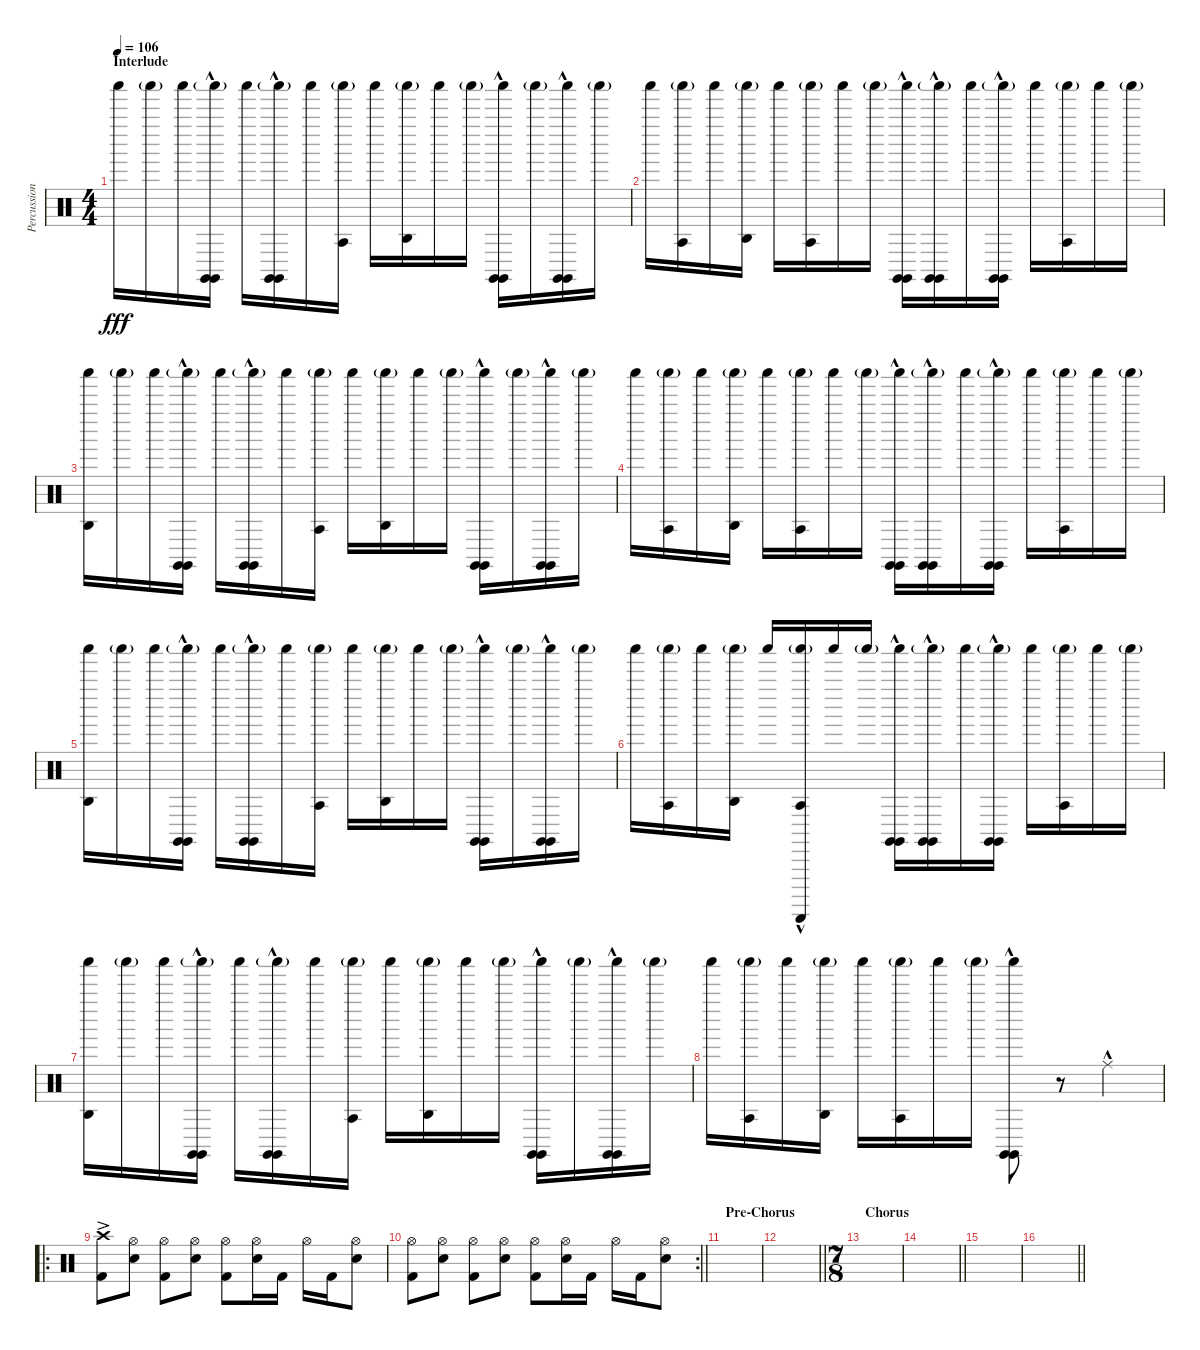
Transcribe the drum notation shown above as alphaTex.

\track ("Percussion 1" "Percussion") {instrument percussion}
\staff {score}
\articulation defaults
\ts (4 4)
\section ("" "Interlude")
\tempo 106
\clef neutral
\ks c "Shaker (hit)".16{dy fff} "Shaker (hit)"{g}.16 "Shaker (hit)".16
("Shaker (hit)"{g} "Claves (hit)"{hac} "Claves (hit)"{hac}).16 "Shaker (hit)".16 ("Shaker (hit)"{g} "Claves (hit)"{hac} "Claves (hit)"{hac}).16 "Shaker (hit)".16 ("Shaker (hit)"{g} "Agogo tow (hit)").16 "Shaker (hit)".16 ("Shaker (hit)"{g} "Agogo high (hit)").16 "Shaker (hit)".16 "Shaker (hit)"{g}.16 ("Shaker (hit)" "Claves (hit)"{hac} "Claves (hit)"{hac}).16 "Shaker (hit)"{g}.16 ("Shaker (hit)" "Claves (hit)"{hac} "Claves (hit)"{hac}).16 "Shaker (hit)"{g}.16 |
"Shaker (hit)".16 ("Shaker (hit)"{g} "Agogo tow (hit)").16 "Shaker (hit)".16 ("Shaker (hit)"{g} "Agogo high (hit)").16 "Shaker (hit)".16 ("Shaker (hit)"{g} "Agogo tow (hit)").16 "Shaker (hit)".16 "Shaker (hit)"{g}.16 ("Shaker (hit)" "Claves (hit)"{hac} "Claves (hit)"{hac}).16 ("Shaker (hit)"{g} "Claves (hit)"{hac} "Claves (hit)"{hac}).16 "Shaker (hit)".16 ("Shaker (hit)"{g} "Claves (hit)"{hac} "Claves (hit)"{hac}).16 "Shaker (hit)".16 ("Shaker (hit)"{g} "Agogo tow (hit)").16 "Shaker (hit)".16 "Shaker (hit)"{g}.16 |
("Shaker (hit)" "Agogo high (hit)").16 "Shaker (hit)"{g}.16 "Shaker (hit)".16 ("Shaker (hit)"{g} "Claves (hit)"{hac} "Claves (hit)"{hac}).16 "Shaker (hit)".16 ("Shaker (hit)"{g} "Claves (hit)"{hac} "Claves (hit)"{hac}).16 "Shaker (hit)".16 ("Shaker (hit)"{g} "Agogo tow (hit)").16 "Shaker (hit)".16 ("Shaker (hit)"{g} "Agogo high (hit)").16 "Shaker (hit)".16 "Shaker (hit)"{g}.16 ("Shaker (hit)" "Claves (hit)"{hac} "Claves (hit)"{hac}).16 "Shaker (hit)"{g}.16 ("Shaker (hit)" "Claves (hit)"{hac} "Claves (hit)"{hac}).16 "Shaker (hit)"{g}.16 |
"Shaker (hit)".16 ("Shaker (hit)"{g} "Agogo tow (hit)").16 "Shaker (hit)".16 ("Shaker (hit)"{g} "Agogo high (hit)").16 "Shaker (hit)".16 ("Shaker (hit)"{g} "Agogo tow (hit)").16 "Shaker (hit)".16 "Shaker (hit)"{g}.16 ("Shaker (hit)" "Claves (hit)"{hac} "Claves (hit)"{hac}).16 ("Shaker (hit)"{g} "Claves (hit)"{hac} "Claves (hit)"{hac}).16 "Shaker (hit)".16 ("Shaker (hit)"{g} "Claves (hit)"{hac} "Claves (hit)"{hac}).16 "Shaker (hit)".16 ("Shaker (hit)"{g} "Agogo tow (hit)").16 "Shaker (hit)".16 "Shaker (hit)"{g}.16 |
("Shaker (hit)" "Agogo high (hit)").16 "Shaker (hit)"{g}.16 "Shaker (hit)".16 ("Shaker (hit)"{g} "Claves (hit)"{hac} "Claves (hit)"{hac}).16 "Shaker (hit)".16 ("Shaker (hit)"{g} "Claves (hit)"{hac} "Claves (hit)"{hac}).16 "Shaker (hit)".16 ("Shaker (hit)"{g} "Agogo tow (hit)").16 "Shaker (hit)".16 ("Shaker (hit)"{g} "Agogo high (hit)").16 "Shaker (hit)".16 "Shaker (hit)"{g}.16 ("Shaker (hit)" "Claves (hit)"{hac} "Claves (hit)"{hac}).16 "Shaker (hit)"{g}.16 ("Shaker (hit)" "Claves (hit)"{hac} "Claves (hit)"{hac}).16 "Shaker (hit)"{g}.16 |
"Shaker (hit)".16 ("Shaker (hit)"{g} "Agogo tow (hit)").16 "Shaker (hit)".16 ("Shaker (hit)"{g} "Agogo high (hit)").16 "Shaker (hit)".16 ("Shaker (hit)"{g} "Guiro (scrap-return)"{hac} "Agogo tow (hit)").16 "Shaker (hit)".16 "Shaker (hit)"{g}.16 ("Shaker (hit)" "Claves (hit)"{hac} "Claves (hit)"{hac}).16 ("Shaker (hit)"{g} "Claves (hit)"{hac} "Claves (hit)"{hac}).16 "Shaker (hit)".16 ("Shaker (hit)"{g} "Claves (hit)"{hac} "Claves (hit)"{hac}).16 "Shaker (hit)".16 ("Shaker (hit)"{g} "Agogo tow (hit)").16 "Shaker (hit)".16 "Shaker (hit)"{g}.16 |
("Shaker (hit)" "Agogo high (hit)").16 "Shaker (hit)"{g}.16 "Shaker (hit)".16 ("Shaker (hit)"{g} "Claves (hit)"{hac} "Claves (hit)"{hac}).16 "Shaker (hit)".16 ("Shaker (hit)"{g} "Claves (hit)"{hac} "Claves (hit)"{hac}).16 "Shaker (hit)".16 ("Shaker (hit)"{g} "Agogo tow (hit)").16 "Shaker (hit)".16 ("Shaker (hit)"{g} "Agogo high (hit)").16 "Shaker (hit)".16 "Shaker (hit)"{g}.16 ("Shaker (hit)" "Claves (hit)"{hac} "Claves (hit)"{hac}).16 "Shaker (hit)"{g}.16 ("Shaker (hit)" "Claves (hit)"{hac} "Claves (hit)"{hac}).16 "Shaker (hit)"{g}.16 |
"Shaker (hit)".16 ("Shaker (hit)"{g} "Agogo tow (hit)").16 "Shaker (hit)".16 ("Shaker (hit)"{g} "Agogo high (hit)").16 "Shaker (hit)".16 ("Shaker (hit)"{g} "Agogo tow (hit)").16 "Shaker (hit)".16 "Shaker (hit)"{g}.16 ("Shaker (hit)" "Claves (hit)"{hac} "Claves (hit)"{hac}).8 r.8 "Ride (middle)"{hac}.4 |
\ro
("Crash high (hit)"{ac} "Kick (hit) 2").8 ("Hi-Hat (open)" "Electric Snare (hit)").8 ("Hi-Hat (open)" "Kick (hit) 2").8 ("Hi-Hat (open)" "Electric Snare (hit)").8 ("Hi-Hat (open)" "Kick (hit) 2").8 ("Hi-Hat (open)" "Electric Snare (hit)").16 "Kick (hit) 2".16 "Hi-Hat (open)".16 "Kick (hit) 2".16 ("Hi-Hat (open)" "Electric Snare (hit)").8 |
\rc 2
\barLineRight lightlight
("Hi-Hat (open)" "Kick (hit) 2").8 ("Hi-Hat (open)" "Electric Snare (hit)").8 ("Hi-Hat (open)" "Kick (hit) 2").8 ("Hi-Hat (open)" "Electric Snare (hit)").8 ("Hi-Hat (open)" "Kick (hit) 2").8 ("Hi-Hat (open)" "Electric Snare (hit)").16 "Kick (hit) 2".16 "Hi-Hat (open)".16 "Kick (hit) 2".16 ("Hi-Hat (open)" "Electric Snare (hit)").8 |
\section ("" "Pre-Chorus")
|
\barLineRight lightlight
|
\ts (7 8)
\section ("" "Chorus")
|
\barLineRight lightlight
|
|
\barLineRight lightlight
